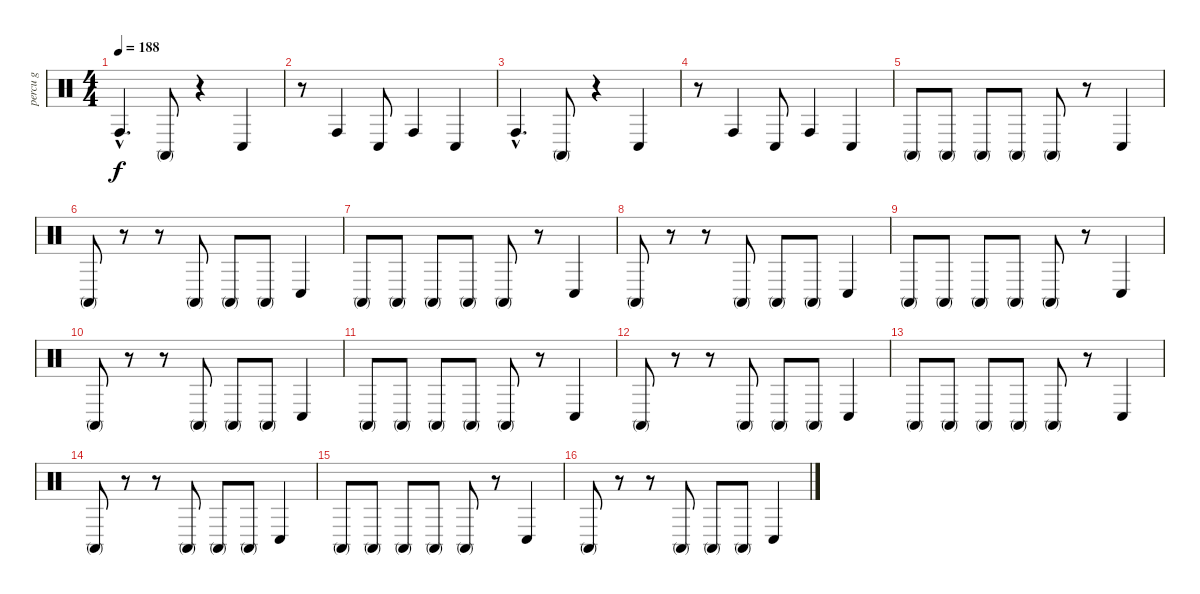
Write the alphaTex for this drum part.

\track ("percu g" "percu g") {instrument percussion}
\staff {score}
\articulation defaults
\ts (4 4)
\tempo 188
\clef neutral
\ks c "Conga high (hit)"{hac}.4{d dy f} "Conga high (mute)".8
r.4 "Conga low (hit)".4 |
r.8 "Conga high (hit)".4 "Conga low (hit)".8 "Conga high (hit)".4 "Conga low (hit)".4 |
"Conga high (hit)"{hac}.4{d} "Conga high (mute)".8 r.4 "Conga low (hit)".4 |
r.8 "Conga high (hit)".4 "Conga low (hit)".8 "Conga high (hit)".4 "Conga low (hit)".4 |
"Conga high (mute)".8 "Conga high (mute)".8 "Conga high (mute)".8 "Conga high (mute)".8 "Conga high (mute)".8 r.8 "Conga low (hit)".4 |
"Conga high (mute)".8 r.8 r.8 "Conga high (mute)".8 "Conga high (mute)".8 "Conga high (mute)".8 "Conga low (hit)".4 |
"Conga high (mute)".8 "Conga high (mute)".8 "Conga high (mute)".8 "Conga high (mute)".8 "Conga high (mute)".8 r.8 "Conga low (hit)".4 |
"Conga high (mute)".8 r.8 r.8 "Conga high (mute)".8 "Conga high (mute)".8 "Conga high (mute)".8 "Conga low (hit)".4 |
"Conga high (mute)".8 "Conga high (mute)".8 "Conga high (mute)".8 "Conga high (mute)".8 "Conga high (mute)".8 r.8 "Conga low (hit)".4 |
"Conga high (mute)".8 r.8 r.8 "Conga high (mute)".8 "Conga high (mute)".8 "Conga high (mute)".8 "Conga low (hit)".4 |
"Conga high (mute)".8 "Conga high (mute)".8 "Conga high (mute)".8 "Conga high (mute)".8 "Conga high (mute)".8 r.8 "Conga low (hit)".4 |
"Conga high (mute)".8 r.8 r.8 "Conga high (mute)".8 "Conga high (mute)".8 "Conga high (mute)".8 "Conga low (hit)".4 |
"Conga high (mute)".8 "Conga high (mute)".8 "Conga high (mute)".8 "Conga high (mute)".8 "Conga high (mute)".8 r.8 "Conga low (hit)".4 |
"Conga high (mute)".8 r.8 r.8 "Conga high (mute)".8 "Conga high (mute)".8 "Conga high (mute)".8 "Conga low (hit)".4 |
"Conga high (mute)".8 "Conga high (mute)".8 "Conga high (mute)".8 "Conga high (mute)".8 "Conga high (mute)".8 r.8 "Conga low (hit)".4 |
"Conga high (mute)".8 r.8 r.8 "Conga high (mute)".8 "Conga high (mute)".8 "Conga high (mute)".8 "Conga low (hit)".4
